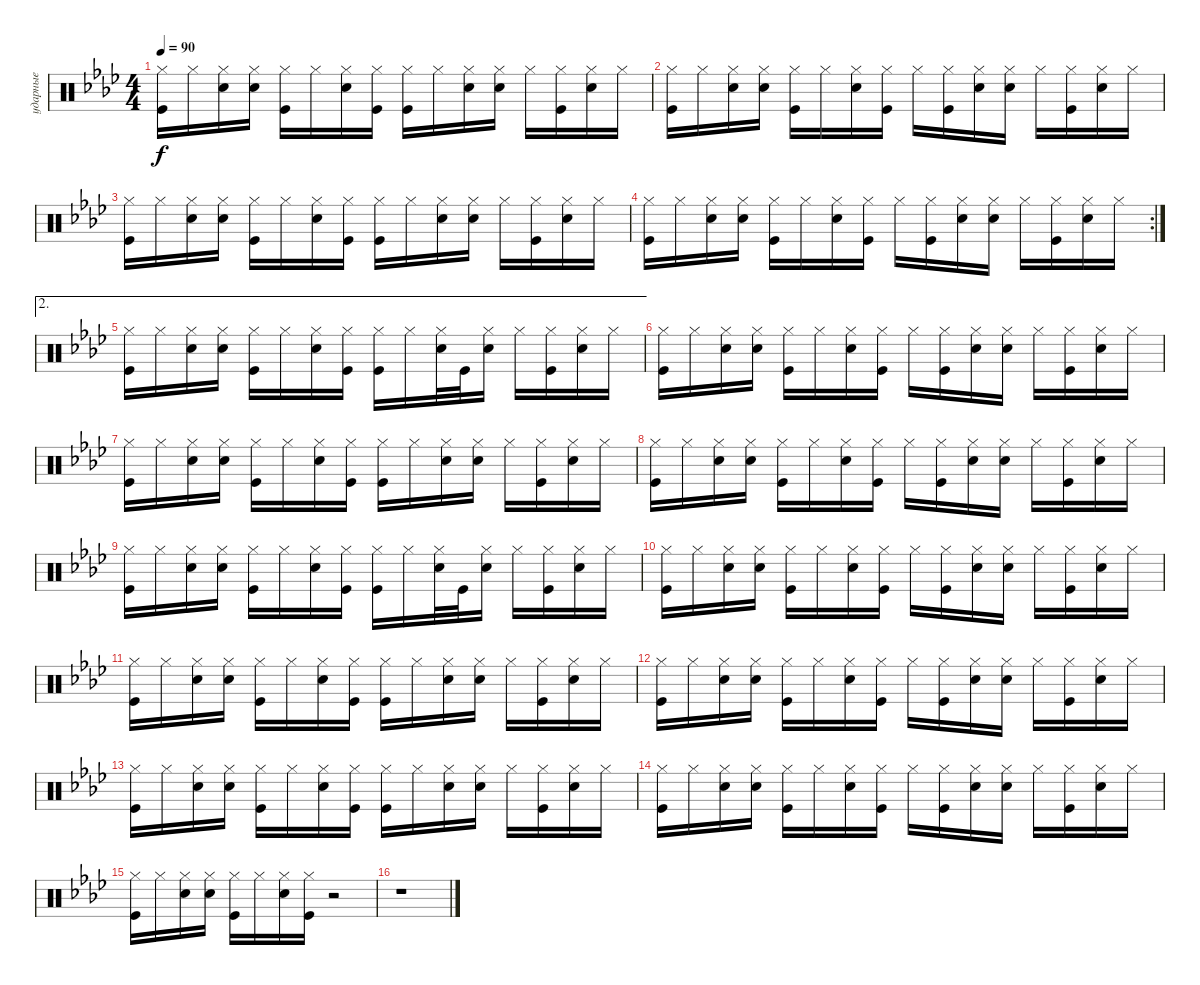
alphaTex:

\track ("ударные" "ударные") {instrument percussion}
\staff {score}
\articulation defaults
\ts (4 4)
\tempo 90
\clef neutral
\ks fminor
("Kick (hit)" "Hi-Hat (closed)").16{dy f} "Hi-Hat (closed)".16 ("Snare (hit) 2" "Hi-Hat (closed)").16 ("Snare (hit) 2" "Hi-Hat (closed)").16 ("Kick (hit)" "Hi-Hat (closed)").16 "Hi-Hat (closed)".16 ("Snare (hit) 2" "Hi-Hat (closed)").16 ("Kick (hit)" "Hi-Hat (closed)").16 ("Kick (hit)" "Hi-Hat (closed)").16 "Hi-Hat (closed)".16 ("Snare (hit) 2" "Hi-Hat (closed)").16 ("Snare (hit) 2" "Hi-Hat (closed)").16 "Hi-Hat (closed)".16 ("Hi-Hat (closed)" "Kick (hit)").16 ("Snare (hit) 2" "Hi-Hat (closed)").16 "Hi-Hat (closed)".16 |
("Kick (hit)" "Hi-Hat (closed)").16 "Hi-Hat (closed)".16 ("Snare (hit) 2" "Hi-Hat (closed)").16 ("Snare (hit) 2" "Hi-Hat (closed)").16 ("Kick (hit)" "Hi-Hat (closed)").16 "Hi-Hat (closed)".16 ("Snare (hit) 2" "Hi-Hat (closed)").16 ("Kick (hit)" "Hi-Hat (closed)").16 "Hi-Hat (closed)".16 ("Hi-Hat (closed)" "Kick (hit)").16 ("Snare (hit) 2" "Hi-Hat (closed)").16 ("Snare (hit) 2" "Hi-Hat (closed)").16 "Hi-Hat (closed)".16 ("Hi-Hat (closed)" "Kick (hit)").16 ("Snare (hit) 2" "Hi-Hat (closed)").16 "Hi-Hat (closed)".16 |
("Kick (hit)" "Hi-Hat (closed)").16 "Hi-Hat (closed)".16 ("Snare (hit) 2" "Hi-Hat (closed)").16 ("Snare (hit) 2" "Hi-Hat (closed)").16 ("Kick (hit)" "Hi-Hat (closed)").16 "Hi-Hat (closed)".16 ("Snare (hit) 2" "Hi-Hat (closed)").16 ("Kick (hit)" "Hi-Hat (closed)").16 ("Kick (hit)" "Hi-Hat (closed)").16 "Hi-Hat (closed)".16 ("Snare (hit) 2" "Hi-Hat (closed)").16 ("Snare (hit) 2" "Hi-Hat (closed)").16 "Hi-Hat (closed)".16 ("Hi-Hat (closed)" "Kick (hit)").16 ("Snare (hit) 2" "Hi-Hat (closed)").16 "Hi-Hat (closed)".16 |
\rc 2
("Kick (hit)" "Hi-Hat (closed)").16 "Hi-Hat (closed)".16 ("Snare (hit) 2" "Hi-Hat (closed)").16 ("Snare (hit) 2" "Hi-Hat (closed)").16 ("Kick (hit)" "Hi-Hat (closed)").16 "Hi-Hat (closed)".16 ("Snare (hit) 2" "Hi-Hat (closed)").16 ("Kick (hit)" "Hi-Hat (closed)").16 "Hi-Hat (closed)".16 ("Hi-Hat (closed)" "Kick (hit)").16 ("Snare (hit) 2" "Hi-Hat (closed)").16 ("Snare (hit) 2" "Hi-Hat (closed)").16 "Hi-Hat (closed)".16 ("Hi-Hat (closed)" "Kick (hit)").16 ("Snare (hit) 2" "Hi-Hat (closed)").16 "Hi-Hat (closed)".16 |
\ae 2
("Kick (hit)" "Hi-Hat (closed)").16 "Hi-Hat (closed)".16 ("Snare (hit) 2" "Hi-Hat (closed)").16 ("Snare (hit) 2" "Hi-Hat (closed)").16 ("Kick (hit)" "Hi-Hat (closed)").16 "Hi-Hat (closed)".16 ("Snare (hit) 2" "Hi-Hat (closed)").16 ("Kick (hit)" "Hi-Hat (closed)").16 ("Kick (hit)" "Hi-Hat (closed)").16 "Hi-Hat (closed)".16 ("Snare (hit) 2" "Hi-Hat (closed)").32 "Kick (hit)".32 ("Snare (hit) 2" "Hi-Hat (closed)").16 "Hi-Hat (closed)".16 ("Hi-Hat (closed)" "Kick (hit)").16 ("Snare (hit) 2" "Hi-Hat (closed)").16 "Hi-Hat (closed)".16 |
("Kick (hit)" "Hi-Hat (closed)").16 "Hi-Hat (closed)".16 ("Snare (hit) 2" "Hi-Hat (closed)").16 ("Snare (hit) 2" "Hi-Hat (closed)").16 ("Kick (hit)" "Hi-Hat (closed)").16 "Hi-Hat (closed)".16 ("Snare (hit) 2" "Hi-Hat (closed)").16 ("Kick (hit)" "Hi-Hat (closed)").16 "Hi-Hat (closed)".16 ("Hi-Hat (closed)" "Kick (hit)").16 ("Snare (hit) 2" "Hi-Hat (closed)").16 ("Snare (hit) 2" "Hi-Hat (closed)").16 "Hi-Hat (closed)".16 ("Hi-Hat (closed)" "Kick (hit)").16 ("Snare (hit) 2" "Hi-Hat (closed)").16 "Hi-Hat (closed)".16 |
("Kick (hit)" "Hi-Hat (closed)").16 "Hi-Hat (closed)".16 ("Snare (hit) 2" "Hi-Hat (closed)").16 ("Snare (hit) 2" "Hi-Hat (closed)").16 ("Kick (hit)" "Hi-Hat (closed)").16 "Hi-Hat (closed)".16 ("Snare (hit) 2" "Hi-Hat (closed)").16 ("Kick (hit)" "Hi-Hat (closed)").16 ("Kick (hit)" "Hi-Hat (closed)").16 "Hi-Hat (closed)".16 ("Snare (hit) 2" "Hi-Hat (closed)").16 ("Snare (hit) 2" "Hi-Hat (closed)").16 "Hi-Hat (closed)".16 ("Hi-Hat (closed)" "Kick (hit)").16 ("Snare (hit) 2" "Hi-Hat (closed)").16 "Hi-Hat (closed)".16 |
("Kick (hit)" "Hi-Hat (closed)").16 "Hi-Hat (closed)".16 ("Snare (hit) 2" "Hi-Hat (closed)").16 ("Snare (hit) 2" "Hi-Hat (closed)").16 ("Kick (hit)" "Hi-Hat (closed)").16 "Hi-Hat (closed)".16 ("Snare (hit) 2" "Hi-Hat (closed)").16 ("Kick (hit)" "Hi-Hat (closed)").16 "Hi-Hat (closed)".16 ("Hi-Hat (closed)" "Kick (hit)").16 ("Snare (hit) 2" "Hi-Hat (closed)").16 ("Snare (hit) 2" "Hi-Hat (closed)").16 "Hi-Hat (closed)".16 ("Hi-Hat (closed)" "Kick (hit)").16 ("Snare (hit) 2" "Hi-Hat (closed)").16 "Hi-Hat (closed)".16 |
("Kick (hit)" "Hi-Hat (closed)").16 "Hi-Hat (closed)".16 ("Snare (hit) 2" "Hi-Hat (closed)").16 ("Snare (hit) 2" "Hi-Hat (closed)").16 ("Kick (hit)" "Hi-Hat (closed)").16 "Hi-Hat (closed)".16 ("Snare (hit) 2" "Hi-Hat (closed)").16 ("Kick (hit)" "Hi-Hat (closed)").16 ("Kick (hit)" "Hi-Hat (closed)").16 "Hi-Hat (closed)".16 ("Snare (hit) 2" "Hi-Hat (closed)").32 "Kick (hit)".32 ("Snare (hit) 2" "Hi-Hat (closed)").16 "Hi-Hat (closed)".16 ("Hi-Hat (closed)" "Kick (hit)").16 ("Snare (hit) 2" "Hi-Hat (closed)").16 "Hi-Hat (closed)".16 |
("Kick (hit)" "Hi-Hat (closed)").16 "Hi-Hat (closed)".16 ("Snare (hit) 2" "Hi-Hat (closed)").16 ("Snare (hit) 2" "Hi-Hat (closed)").16 ("Kick (hit)" "Hi-Hat (closed)").16 "Hi-Hat (closed)".16 ("Snare (hit) 2" "Hi-Hat (closed)").16 ("Kick (hit)" "Hi-Hat (closed)").16 "Hi-Hat (closed)".16 ("Hi-Hat (closed)" "Kick (hit)").16 ("Snare (hit) 2" "Hi-Hat (closed)").16 ("Snare (hit) 2" "Hi-Hat (closed)").16 "Hi-Hat (closed)".16 ("Hi-Hat (closed)" "Kick (hit)").16 ("Snare (hit) 2" "Hi-Hat (closed)").16 "Hi-Hat (closed)".16 |
("Kick (hit)" "Hi-Hat (closed)").16 "Hi-Hat (closed)".16 ("Snare (hit) 2" "Hi-Hat (closed)").16 ("Snare (hit) 2" "Hi-Hat (closed)").16 ("Kick (hit)" "Hi-Hat (closed)").16 "Hi-Hat (closed)".16 ("Snare (hit) 2" "Hi-Hat (closed)").16 ("Kick (hit)" "Hi-Hat (closed)").16 ("Kick (hit)" "Hi-Hat (closed)").16 "Hi-Hat (closed)".16 ("Snare (hit) 2" "Hi-Hat (closed)").16 ("Snare (hit) 2" "Hi-Hat (closed)").16 "Hi-Hat (closed)".16 ("Hi-Hat (closed)" "Kick (hit)").16 ("Snare (hit) 2" "Hi-Hat (closed)").16 "Hi-Hat (closed)".16 |
("Kick (hit)" "Hi-Hat (closed)").16 "Hi-Hat (closed)".16 ("Snare (hit) 2" "Hi-Hat (closed)").16 ("Snare (hit) 2" "Hi-Hat (closed)").16 ("Kick (hit)" "Hi-Hat (closed)").16 "Hi-Hat (closed)".16 ("Snare (hit) 2" "Hi-Hat (closed)").16 ("Kick (hit)" "Hi-Hat (closed)").16 "Hi-Hat (closed)".16 ("Hi-Hat (closed)" "Kick (hit)").16 ("Snare (hit) 2" "Hi-Hat (closed)").16 ("Snare (hit) 2" "Hi-Hat (closed)").16 "Hi-Hat (closed)".16 ("Hi-Hat (closed)" "Kick (hit)").16 ("Snare (hit) 2" "Hi-Hat (closed)").16 "Hi-Hat (closed)".16 |
("Kick (hit)" "Hi-Hat (closed)").16 "Hi-Hat (closed)".16 ("Snare (hit) 2" "Hi-Hat (closed)").16 ("Snare (hit) 2" "Hi-Hat (closed)").16 ("Kick (hit)" "Hi-Hat (closed)").16 "Hi-Hat (closed)".16 ("Snare (hit) 2" "Hi-Hat (closed)").16 ("Kick (hit)" "Hi-Hat (closed)").16 ("Kick (hit)" "Hi-Hat (closed)").16 "Hi-Hat (closed)".16 ("Snare (hit) 2" "Hi-Hat (closed)").16 ("Snare (hit) 2" "Hi-Hat (closed)").16 "Hi-Hat (closed)".16 ("Hi-Hat (closed)" "Kick (hit)").16 ("Snare (hit) 2" "Hi-Hat (closed)").16 "Hi-Hat (closed)".16 |
("Kick (hit)" "Hi-Hat (closed)").16 "Hi-Hat (closed)".16 ("Snare (hit) 2" "Hi-Hat (closed)").16 ("Snare (hit) 2" "Hi-Hat (closed)").16 ("Kick (hit)" "Hi-Hat (closed)").16 "Hi-Hat (closed)".16 ("Snare (hit) 2" "Hi-Hat (closed)").16 ("Kick (hit)" "Hi-Hat (closed)").16 "Hi-Hat (closed)".16 ("Hi-Hat (closed)" "Kick (hit)").16 ("Snare (hit) 2" "Hi-Hat (closed)").16 ("Snare (hit) 2" "Hi-Hat (closed)").16 "Hi-Hat (closed)".16 ("Hi-Hat (closed)" "Kick (hit)").16 ("Snare (hit) 2" "Hi-Hat (closed)").16 "Hi-Hat (closed)".16 |
("Kick (hit)" "Hi-Hat (closed)").16 "Hi-Hat (closed)".16 ("Snare (hit) 2" "Hi-Hat (closed)").16 ("Snare (hit) 2" "Hi-Hat (closed)").16 ("Kick (hit)" "Hi-Hat (closed)").16 "Hi-Hat (closed)".16 ("Snare (hit) 2" "Hi-Hat (closed)").16 ("Kick (hit)" "Hi-Hat (closed)").16 r.2 |
r.1
